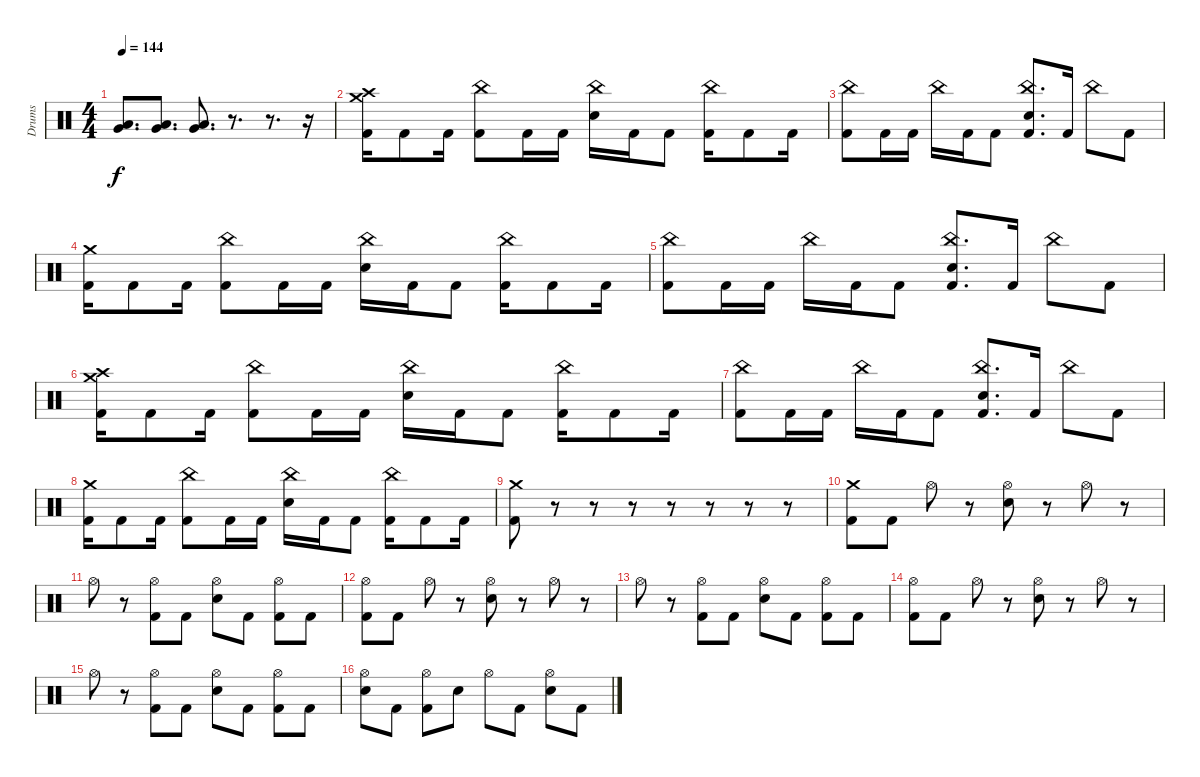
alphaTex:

\track ("Drums" "Drums") {instrument percussion}
\staff {score}
\articulation defaults
\ts (4 4)
\tempo 144
\clef neutral
\ks c
("Very Low Tom (hit)" "Low Tom (hit)").8{d dy f} ("Very Low Tom (hit)" "Low Tom (hit)").8{d} ("Very Low Tom (hit)" "Low Tom (hit)").8{d} r.8{d} r.8{d} r.16 |
("Crash medium (hit)" "Crash high (hit)" "Kick (hit) 2").16 "Kick (hit) 2".8 "Kick (hit) 2".16 ("China (hit)" "Kick (hit) 2").8 "Kick (hit) 2".16 "Kick (hit) 2".16 ("China (hit)" "Electric Snare (hit)").16 "Kick (hit) 2".16 "Kick (hit) 2".8 ("China (hit)" "Kick (hit) 2").16 "Kick (hit) 2".8 "Kick (hit) 2".16 |
("China (hit)" "Kick (hit) 2").8 "Kick (hit) 2".16 "Kick (hit) 2".16 "China (hit)".16 "Kick (hit) 2".16 "Kick (hit) 2".8 ("China (hit)" "Electric Snare (hit)" "Kick (hit) 2").8{d} "Kick (hit) 2".16 "China (hit)".8 "Kick (hit) 2".8 |
("Crash medium (hit)" "Kick (hit) 2").16 "Kick (hit) 2".8 "Kick (hit) 2".16 ("China (hit)" "Kick (hit) 2").8 "Kick (hit) 2".16 "Kick (hit) 2".16 ("China (hit)" "Electric Snare (hit)").16 "Kick (hit) 2".16 "Kick (hit) 2".8 ("China (hit)" "Kick (hit) 2").16 "Kick (hit) 2".8 "Kick (hit) 2".16 |
("China (hit)" "Kick (hit) 2").8 "Kick (hit) 2".16 "Kick (hit) 2".16 "China (hit)".16 "Kick (hit) 2".16 "Kick (hit) 2".8 ("China (hit)" "Electric Snare (hit)" "Kick (hit) 2").8{d} "Kick (hit) 2".16 "China (hit)".8 "Kick (hit) 2".8 |
("Crash medium (hit)" "Crash high (hit)" "Kick (hit) 2").16 "Kick (hit) 2".8 "Kick (hit) 2".16 ("China (hit)" "Kick (hit) 2").8 "Kick (hit) 2".16 "Kick (hit) 2".16 ("China (hit)" "Electric Snare (hit)").16 "Kick (hit) 2".16 "Kick (hit) 2".8 ("China (hit)" "Kick (hit) 2").16 "Kick (hit) 2".8 "Kick (hit) 2".16 |
("China (hit)" "Kick (hit) 2").8 "Kick (hit) 2".16 "Kick (hit) 2".16 "China (hit)".16 "Kick (hit) 2".16 "Kick (hit) 2".8 ("China (hit)" "Electric Snare (hit)" "Kick (hit) 2").8{d} "Kick (hit) 2".16 "China (hit)".8 "Kick (hit) 2".8 |
("Crash medium (hit)" "Kick (hit) 2").16 "Kick (hit) 2".8 "Kick (hit) 2".16 ("China (hit)" "Kick (hit) 2").8 "Kick (hit) 2".16 "Kick (hit) 2".16 ("China (hit)" "Electric Snare (hit)").16 "Kick (hit) 2".16 "Kick (hit) 2".8 ("China (hit)" "Kick (hit) 2").16 "Kick (hit) 2".8 "Kick (hit) 2".16 |
("Crash medium (hit)" "Kick (hit) 2").8 r.8 r.8 r.8 r.8 r.8 r.8 r.8 |
("Crash medium (hit)" "Kick (hit) 2").8 "Kick (hit) 2".8 "Hi-Hat (open)".8 r.8 ("Hi-Hat (open)" "Electric Snare (hit)").8 r.8 "Hi-Hat (open)".8 r.8 |
"Hi-Hat (open)".8 r.8 ("Hi-Hat (open)" "Kick (hit) 2").8 "Kick (hit) 2".8 ("Hi-Hat (open)" "Electric Snare (hit)").8 "Kick (hit) 2".8 ("Hi-Hat (open)" "Kick (hit) 2").8 "Kick (hit) 2".8 |
("Hi-Hat (open)" "Kick (hit) 2").8 "Kick (hit) 2".8 "Hi-Hat (open)".8 r.8 ("Hi-Hat (open)" "Electric Snare (hit)").8 r.8 "Hi-Hat (open)".8 r.8 |
"Hi-Hat (open)".8 r.8 ("Hi-Hat (open)" "Kick (hit) 2").8 "Kick (hit) 2".8 ("Hi-Hat (open)" "Electric Snare (hit)").8 "Kick (hit) 2".8 ("Hi-Hat (open)" "Kick (hit) 2").8 "Kick (hit) 2".8 |
("Hi-Hat (open)" "Kick (hit) 2").8 "Kick (hit) 2".8 "Hi-Hat (open)".8 r.8 ("Hi-Hat (open)" "Electric Snare (hit)").8 r.8 "Hi-Hat (open)".8 r.8 |
"Hi-Hat (open)".8 r.8 ("Hi-Hat (open)" "Kick (hit) 2").8 "Kick (hit) 2".8 ("Hi-Hat (open)" "Electric Snare (hit)").8 "Kick (hit) 2".8 ("Hi-Hat (open)" "Kick (hit) 2").8 "Kick (hit) 2".8 |
("Hi-Hat (open)" "Electric Snare (hit)").8 "Kick (hit) 2".8 ("Hi-Hat (open)" "Kick (hit) 2").8 "Electric Snare (hit)".8 "Hi-Hat (open)".8 "Kick (hit) 2".8 ("Hi-Hat (open)" "Electric Snare (hit)").8 "Kick (hit) 2".8
